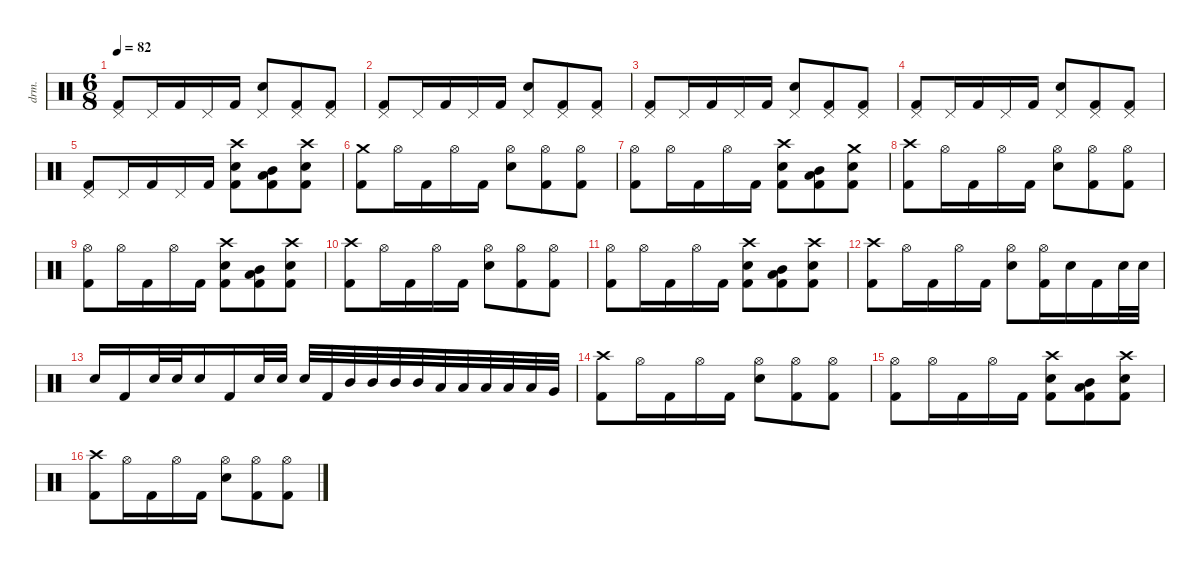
\defaultSystemsLayout 4
\hideDynamics
\bracketExtendMode nobrackets
\otherSystemsTrackNameOrientation horizontal
\track ("Drums" "drm.") {instrument percussion}
\staff {score}
\articulation defaults
\ts (6 8)
\tempo 82
\clef neutral
\ks c
("Pedal Hi-Hat (hit)" "Kick (hit) 2").8{dy f} "Pedal Hi-Hat (hit)".16 "Kick (hit) 2".16 "Pedal Hi-Hat (hit)".16 "Kick (hit) 2".16 ("Pedal Hi-Hat (hit)" "Snare (hit) 2").8 ("Pedal Hi-Hat (hit)" "Kick (hit) 2").8 ("Pedal Hi-Hat (hit)" "Kick (hit) 2").8 |
("Pedal Hi-Hat (hit)" "Kick (hit) 2").8 "Pedal Hi-Hat (hit)".16 "Kick (hit) 2".16 "Pedal Hi-Hat (hit)".16 "Kick (hit) 2".16 ("Pedal Hi-Hat (hit)" "Snare (hit) 2").8 ("Pedal Hi-Hat (hit)" "Kick (hit) 2").8 ("Pedal Hi-Hat (hit)" "Kick (hit) 2").8 |
("Pedal Hi-Hat (hit)" "Kick (hit) 2").8 "Pedal Hi-Hat (hit)".16 "Kick (hit) 2".16 "Pedal Hi-Hat (hit)".16 "Kick (hit) 2".16 ("Pedal Hi-Hat (hit)" "Snare (hit) 2").8 ("Pedal Hi-Hat (hit)" "Kick (hit) 2").8 ("Pedal Hi-Hat (hit)" "Kick (hit) 2").8 |
("Pedal Hi-Hat (hit)" "Kick (hit) 2").8 "Pedal Hi-Hat (hit)".16 "Kick (hit) 2".16 "Pedal Hi-Hat (hit)".16 "Kick (hit) 2".16 ("Pedal Hi-Hat (hit)" "Snare (hit) 2").8 ("Pedal Hi-Hat (hit)" "Kick (hit) 2").8 ("Pedal Hi-Hat (hit)" "Kick (hit) 2").8 |
("Pedal Hi-Hat (hit)" "Kick (hit) 2").8 "Pedal Hi-Hat (hit)".16 "Kick (hit) 2".16 "Pedal Hi-Hat (hit)".16 "Kick (hit) 2".16 ("Crash high (hit)" "Snare (hit) 2" "Kick (hit) 2").8 ("Mid Tom (hit)" "Low Tom (hit)" "Kick (hit) 2").8 ("Crash high (hit)" "Snare (hit) 2" "Kick (hit) 2").8 |
("Crash medium (hit)" "Kick (hit) 2").8 "Hi-Hat (open)".16 "Kick (hit) 2".16 "Hi-Hat (open)".16 "Kick (hit) 2".16 ("Hi-Hat (open)" "Snare (hit) 2").8 ("Hi-Hat (open)" "Kick (hit) 2").8 ("Hi-Hat (open)" "Kick (hit) 2").8 |
("Hi-Hat (open)" "Kick (hit) 2").8 "Hi-Hat (open)".16 "Kick (hit) 2".16 "Hi-Hat (open)".16 "Kick (hit) 2".16 ("Crash high (hit)" "Snare (hit) 2" "Kick (hit) 2").8 ("Mid Tom (hit)" "Low Tom (hit)" "Kick (hit) 2").8 ("Crash medium (hit)" "Snare (hit) 2" "Kick (hit) 2").8 |
("Crash high (hit)" "Kick (hit) 2").8 "Hi-Hat (open)".16 "Kick (hit) 2".16 "Hi-Hat (open)".16 "Kick (hit) 2".16 ("Hi-Hat (open)" "Snare (hit) 2").8 ("Hi-Hat (open)" "Kick (hit) 2").8 ("Hi-Hat (open)" "Kick (hit) 2").8 |
("Hi-Hat (open)" "Kick (hit) 2").8 "Hi-Hat (open)".16 "Kick (hit) 2".16 "Hi-Hat (open)".16 "Kick (hit) 2".16 ("Crash high (hit)" "Snare (hit) 2" "Kick (hit) 2").8 ("Mid Tom (hit)" "Low Tom (hit)" "Kick (hit) 2").8 ("Crash high (hit)" "Snare (hit) 2" "Kick (hit) 2").8 |
("Crash high (hit)" "Kick (hit) 2").8 "Hi-Hat (open)".16 "Kick (hit) 2".16 "Hi-Hat (open)".16 "Kick (hit) 2".16 ("Hi-Hat (open)" "Snare (hit) 2").8 ("Hi-Hat (open)" "Kick (hit) 2").8 ("Hi-Hat (open)" "Kick (hit) 2").8 |
("Hi-Hat (open)" "Kick (hit) 2").8 "Hi-Hat (open)".16 "Kick (hit) 2".16 "Hi-Hat (open)".16 "Kick (hit) 2".16 ("Crash high (hit)" "Snare (hit) 2" "Kick (hit) 2").8 ("Mid Tom (hit)" "Low Tom (hit)" "Kick (hit) 2").8 ("Crash high (hit)" "Snare (hit) 2" "Kick (hit) 2").8 |
("Crash high (hit)" "Kick (hit) 2").8 "Hi-Hat (open)".16 "Kick (hit) 2".16 "Hi-Hat (open)".16 "Kick (hit) 2".16 ("Hi-Hat (open)" "Snare (hit) 2").8 ("Hi-Hat (open)" "Kick (hit) 2").16 "Snare (hit) 2".16 "Kick (hit) 2".16 "Snare (hit) 2".32 "Snare (hit) 2".32 |
"Snare (hit) 2".16 "Kick (hit) 2".16 "Snare (hit) 2".32 "Snare (hit) 2".32 "Snare (hit) 2".16 "Kick (hit) 2".16 "Snare (hit) 2".32 "Snare (hit) 2".32 "Snare (hit) 2".32 "Kick (hit) 2".32 "Mid Tom (hit)".32 "Mid Tom (hit)".32 "Mid Tom (hit)".32 "Mid Tom (hit)".32 "Low Tom (hit)".32 "Low Tom (hit)".32 "Low Tom (hit)".32 "Low Tom (hit)".32 "Low Tom (hit)".32 "Very Low Tom (hit)".32 |
("Crash high (hit)" "Kick (hit) 2").8 "Hi-Hat (open)".16 "Kick (hit) 2".16 "Hi-Hat (open)".16 "Kick (hit) 2".16 ("Hi-Hat (open)" "Snare (hit) 2").8 ("Hi-Hat (open)" "Kick (hit) 2").8 ("Hi-Hat (open)" "Kick (hit) 2").8 |
("Hi-Hat (open)" "Kick (hit) 2").8 "Hi-Hat (open)".16 "Kick (hit) 2".16 "Hi-Hat (open)".16 "Kick (hit) 2".16 ("Crash high (hit)" "Snare (hit) 2" "Kick (hit) 2").8 ("Mid Tom (hit)" "Low Tom (hit)" "Kick (hit) 2").8 ("Crash high (hit)" "Snare (hit) 2" "Kick (hit) 2").8 |
("Crash high (hit)" "Kick (hit) 2").8 "Hi-Hat (open)".16 "Kick (hit) 2".16 "Hi-Hat (open)".16 "Kick (hit) 2".16 ("Hi-Hat (open)" "Snare (hit) 2").8 ("Hi-Hat (open)" "Kick (hit) 2").8 ("Hi-Hat (open)" "Kick (hit) 2").8
